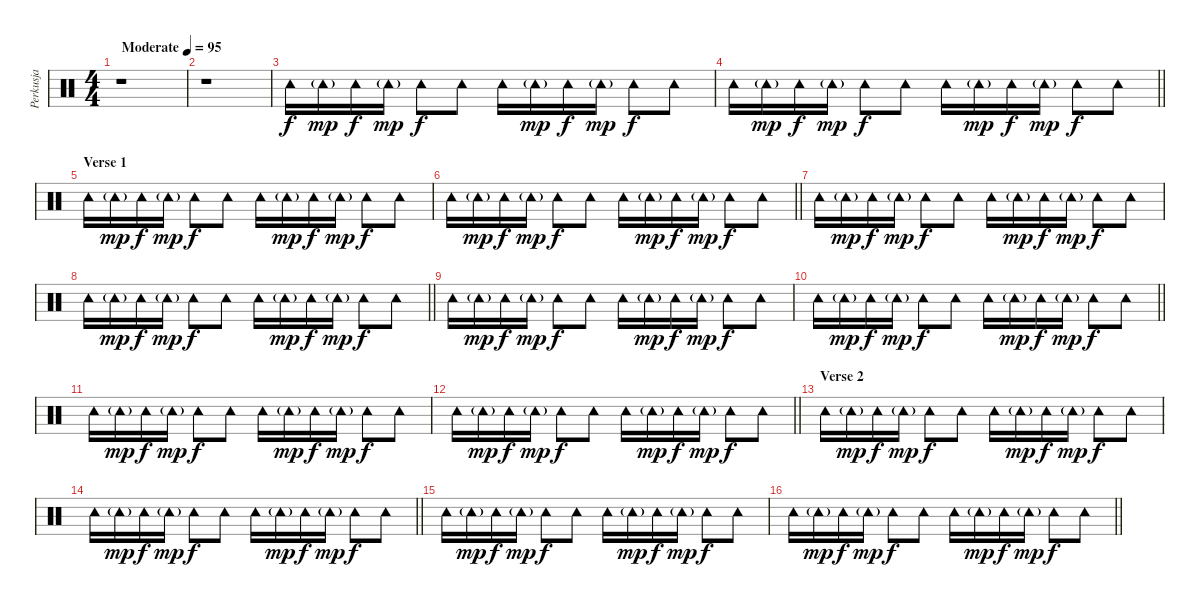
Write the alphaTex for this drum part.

\track ("Perkusja" "Perkusja") {instrument percussion}
\staff {score}
\articulation defaults
\ts (4 4)
\tempo (95 "Moderate")
\clef neutral
\ks c
r.1{dy f} |
r.1 |
"Tambourine (hit)".16 "Tambourine (hit)"{g}.16{dy mp} "Tambourine (hit)".16{dy f} "Tambourine (hit)"{g}.16{dy mp} "Tambourine (hit)".8{dy f} "Tambourine (hit)".8 "Tambourine (hit)".16 "Tambourine (hit)"{g}.16{dy mp} "Tambourine (hit)".16{dy f} "Tambourine (hit)"{g}.16{dy mp} "Tambourine (hit)".8{dy f} "Tambourine (hit)".8 |
\barLineRight lightlight "Tambourine (hit)".16 "Tambourine (hit)"{g}.16{dy mp} "Tambourine (hit)".16{dy f} "Tambourine (hit)"{g}.16{dy mp} "Tambourine (hit)".8{dy f} "Tambourine (hit)".8 "Tambourine (hit)".16 "Tambourine (hit)"{g}.16{dy mp} "Tambourine (hit)".16{dy f} "Tambourine (hit)"{g}.16{dy mp} "Tambourine (hit)".8{dy f} "Tambourine (hit)".8
|
\section ("" "Verse 1")
"Tambourine (hit)".16 "Tambourine (hit)"{g}.16{dy mp} "Tambourine (hit)".16{dy f} "Tambourine (hit)"{g}.16{dy mp} "Tambourine (hit)".8{dy f} "Tambourine (hit)".8 "Tambourine (hit)".16 "Tambourine (hit)"{g}.16{dy mp} "Tambourine (hit)".16{dy f} "Tambourine (hit)"{g}.16{dy mp} "Tambourine (hit)".8{dy f} "Tambourine (hit)".8 |
\barLineRight lightlight "Tambourine (hit)".16 "Tambourine (hit)"{g}.16{dy mp} "Tambourine (hit)".16{dy f} "Tambourine (hit)"{g}.16{dy mp} "Tambourine (hit)".8{dy f} "Tambourine (hit)".8 "Tambourine (hit)".16 "Tambourine (hit)"{g}.16{dy mp} "Tambourine (hit)".16{dy f} "Tambourine (hit)"{g}.16{dy mp} "Tambourine (hit)".8{dy f} "Tambourine (hit)".8
|
"Tambourine (hit)".16 "Tambourine (hit)"{g}.16{dy mp} "Tambourine (hit)".16{dy f} "Tambourine (hit)"{g}.16{dy mp} "Tambourine (hit)".8{dy f} "Tambourine (hit)".8 "Tambourine (hit)".16 "Tambourine (hit)"{g}.16{dy mp} "Tambourine (hit)".16{dy f} "Tambourine (hit)"{g}.16{dy mp} "Tambourine (hit)".8{dy f} "Tambourine (hit)".8 |
\barLineRight lightlight "Tambourine (hit)".16 "Tambourine (hit)"{g}.16{dy mp} "Tambourine (hit)".16{dy f} "Tambourine (hit)"{g}.16{dy mp} "Tambourine (hit)".8{dy f} "Tambourine (hit)".8 "Tambourine (hit)".16 "Tambourine (hit)"{g}.16{dy mp} "Tambourine (hit)".16{dy f} "Tambourine (hit)"{g}.16{dy mp} "Tambourine (hit)".8{dy f} "Tambourine (hit)".8
|
"Tambourine (hit)".16 "Tambourine (hit)"{g}.16{dy mp} "Tambourine (hit)".16{dy f} "Tambourine (hit)"{g}.16{dy mp} "Tambourine (hit)".8{dy f} "Tambourine (hit)".8 "Tambourine (hit)".16 "Tambourine (hit)"{g}.16{dy mp} "Tambourine (hit)".16{dy f} "Tambourine (hit)"{g}.16{dy mp} "Tambourine (hit)".8{dy f} "Tambourine (hit)".8 |
\barLineRight lightlight "Tambourine (hit)".16 "Tambourine (hit)"{g}.16{dy mp} "Tambourine (hit)".16{dy f} "Tambourine (hit)"{g}.16{dy mp} "Tambourine (hit)".8{dy f} "Tambourine (hit)".8 "Tambourine (hit)".16 "Tambourine (hit)"{g}.16{dy mp} "Tambourine (hit)".16{dy f} "Tambourine (hit)"{g}.16{dy mp} "Tambourine (hit)".8{dy f} "Tambourine (hit)".8
|
"Tambourine (hit)".16 "Tambourine (hit)"{g}.16{dy mp} "Tambourine (hit)".16{dy f} "Tambourine (hit)"{g}.16{dy mp} "Tambourine (hit)".8{dy f} "Tambourine (hit)".8 "Tambourine (hit)".16 "Tambourine (hit)"{g}.16{dy mp} "Tambourine (hit)".16{dy f} "Tambourine (hit)"{g}.16{dy mp} "Tambourine (hit)".8{dy f} "Tambourine (hit)".8 |
\barLineRight lightlight "Tambourine (hit)".16 "Tambourine (hit)"{g}.16{dy mp} "Tambourine (hit)".16{dy f} "Tambourine (hit)"{g}.16{dy mp} "Tambourine (hit)".8{dy f} "Tambourine (hit)".8 "Tambourine (hit)".16 "Tambourine (hit)"{g}.16{dy mp} "Tambourine (hit)".16{dy f} "Tambourine (hit)"{g}.16{dy mp} "Tambourine (hit)".8{dy f} "Tambourine (hit)".8
|
\section ("" "Verse 2")
"Tambourine (hit)".16 "Tambourine (hit)"{g}.16{dy mp} "Tambourine (hit)".16{dy f} "Tambourine (hit)"{g}.16{dy mp} "Tambourine (hit)".8{dy f} "Tambourine (hit)".8 "Tambourine (hit)".16 "Tambourine (hit)"{g}.16{dy mp} "Tambourine (hit)".16{dy f} "Tambourine (hit)"{g}.16{dy mp} "Tambourine (hit)".8{dy f} "Tambourine (hit)".8 |
\barLineRight lightlight "Tambourine (hit)".16 "Tambourine (hit)"{g}.16{dy mp} "Tambourine (hit)".16{dy f} "Tambourine (hit)"{g}.16{dy mp} "Tambourine (hit)".8{dy f} "Tambourine (hit)".8 "Tambourine (hit)".16 "Tambourine (hit)"{g}.16{dy mp} "Tambourine (hit)".16{dy f} "Tambourine (hit)"{g}.16{dy mp} "Tambourine (hit)".8{dy f} "Tambourine (hit)".8
|
"Tambourine (hit)".16 "Tambourine (hit)"{g}.16{dy mp} "Tambourine (hit)".16{dy f} "Tambourine (hit)"{g}.16{dy mp} "Tambourine (hit)".8{dy f} "Tambourine (hit)".8 "Tambourine (hit)".16 "Tambourine (hit)"{g}.16{dy mp} "Tambourine (hit)".16{dy f} "Tambourine (hit)"{g}.16{dy mp} "Tambourine (hit)".8{dy f} "Tambourine (hit)".8 |
\barLineRight lightlight "Tambourine (hit)".16 "Tambourine (hit)"{g}.16{dy mp} "Tambourine (hit)".16{dy f} "Tambourine (hit)"{g}.16{dy mp} "Tambourine (hit)".8{dy f} "Tambourine (hit)".8 "Tambourine (hit)".16 "Tambourine (hit)"{g}.16{dy mp} "Tambourine (hit)".16{dy f} "Tambourine (hit)"{g}.16{dy mp} "Tambourine (hit)".8{dy f} "Tambourine (hit)".8
